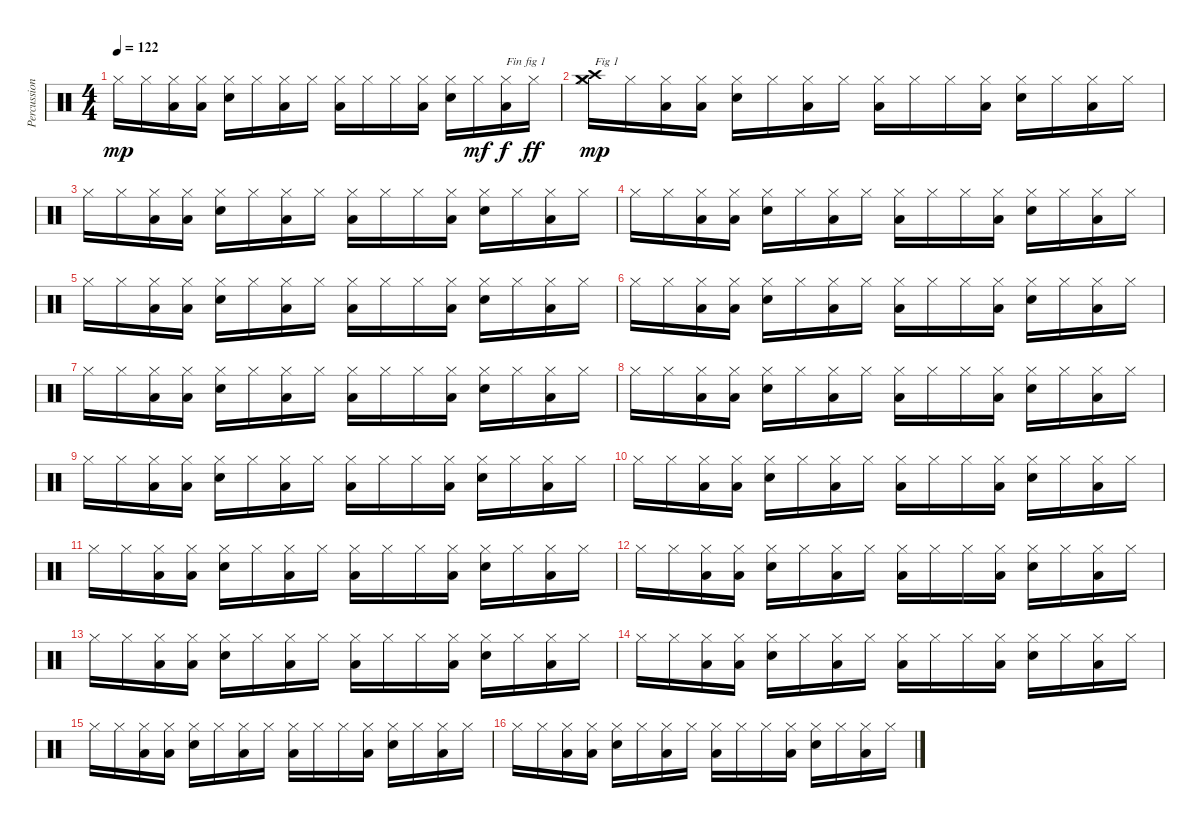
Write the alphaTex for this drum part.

\track ("Percussions" "Percussion") {instrument percussion}
\staff {score}
\articulation defaults
\ts (4 4)
\tempo 122
\clef neutral
\ks c "Hi-Hat (closed)".16{dy mp} "Hi-Hat (closed)".16
("Low Floor Tom (hit)" "Hi-Hat (closed)").16 ("Low Floor Tom (hit)" "Hi-Hat (closed)").16 ("Snare (hit) 2" "Hi-Hat (closed)").16 "Hi-Hat (closed)".16 ("Low Floor Tom (hit)" "Hi-Hat (closed)").16 "Hi-Hat (closed)".16 ("Low Floor Tom (hit)" "Hi-Hat (closed)").16 "Hi-Hat (closed)".16 "Hi-Hat (closed)".16 ("Low Floor Tom (hit)" "Hi-Hat (closed)").16 ("Snare (hit) 2" "Hi-Hat (closed)").16 "Hi-Hat (closed)".16{dy mf} ("Low Floor Tom (hit)" "Hi-Hat (closed)").16{txt "Fin fig 1" dy f} "Hi-Hat (closed)".16{dy ff} |
("Crash high (hit)" "Crash medium (hit)" "Hi-Hat (closed)").16{txt "Fig 1" dy mp} "Hi-Hat (closed)".16 ("Low Floor Tom (hit)" "Hi-Hat (closed)").16 ("Low Floor Tom (hit)" "Hi-Hat (closed)").16 ("Snare (hit) 2" "Hi-Hat (closed)").16 "Hi-Hat (closed)".16 ("Low Floor Tom (hit)" "Hi-Hat (closed)").16 "Hi-Hat (closed)".16 ("Low Floor Tom (hit)" "Hi-Hat (closed)").16 "Hi-Hat (closed)".16 "Hi-Hat (closed)".16 ("Low Floor Tom (hit)" "Hi-Hat (closed)").16 ("Snare (hit) 2" "Hi-Hat (closed)").16 "Hi-Hat (closed)".16 ("Low Floor Tom (hit)" "Hi-Hat (closed)").16 "Hi-Hat (closed)".16 |
"Hi-Hat (closed)".16 "Hi-Hat (closed)".16 ("Low Floor Tom (hit)" "Hi-Hat (closed)").16 ("Low Floor Tom (hit)" "Hi-Hat (closed)").16 ("Snare (hit) 2" "Hi-Hat (closed)").16 "Hi-Hat (closed)".16 ("Low Floor Tom (hit)" "Hi-Hat (closed)").16 "Hi-Hat (closed)".16 ("Low Floor Tom (hit)" "Hi-Hat (closed)").16 "Hi-Hat (closed)".16 "Hi-Hat (closed)".16 ("Low Floor Tom (hit)" "Hi-Hat (closed)").16 ("Snare (hit) 2" "Hi-Hat (closed)").16 "Hi-Hat (closed)".16 ("Low Floor Tom (hit)" "Hi-Hat (closed)").16 "Hi-Hat (closed)".16 |
"Hi-Hat (closed)".16 "Hi-Hat (closed)".16 ("Low Floor Tom (hit)" "Hi-Hat (closed)").16 ("Low Floor Tom (hit)" "Hi-Hat (closed)").16 ("Snare (hit) 2" "Hi-Hat (closed)").16 "Hi-Hat (closed)".16 ("Low Floor Tom (hit)" "Hi-Hat (closed)").16 "Hi-Hat (closed)".16 ("Low Floor Tom (hit)" "Hi-Hat (closed)").16 "Hi-Hat (closed)".16 "Hi-Hat (closed)".16 ("Low Floor Tom (hit)" "Hi-Hat (closed)").16 ("Snare (hit) 2" "Hi-Hat (closed)").16 "Hi-Hat (closed)".16 ("Low Floor Tom (hit)" "Hi-Hat (closed)").16 "Hi-Hat (closed)".16 |
"Hi-Hat (closed)".16 "Hi-Hat (closed)".16 ("Low Floor Tom (hit)" "Hi-Hat (closed)").16 ("Low Floor Tom (hit)" "Hi-Hat (closed)").16 ("Snare (hit) 2" "Hi-Hat (closed)").16 "Hi-Hat (closed)".16 ("Low Floor Tom (hit)" "Hi-Hat (closed)").16 "Hi-Hat (closed)".16 ("Low Floor Tom (hit)" "Hi-Hat (closed)").16 "Hi-Hat (closed)".16 "Hi-Hat (closed)".16 ("Low Floor Tom (hit)" "Hi-Hat (closed)").16 ("Snare (hit) 2" "Hi-Hat (closed)").16 "Hi-Hat (closed)".16 ("Low Floor Tom (hit)" "Hi-Hat (closed)").16 "Hi-Hat (closed)".16 |
"Hi-Hat (closed)".16 "Hi-Hat (closed)".16 ("Low Floor Tom (hit)" "Hi-Hat (closed)").16 ("Low Floor Tom (hit)" "Hi-Hat (closed)").16 ("Snare (hit) 2" "Hi-Hat (closed)").16 "Hi-Hat (closed)".16 ("Low Floor Tom (hit)" "Hi-Hat (closed)").16 "Hi-Hat (closed)".16 ("Low Floor Tom (hit)" "Hi-Hat (closed)").16 "Hi-Hat (closed)".16 "Hi-Hat (closed)".16 ("Low Floor Tom (hit)" "Hi-Hat (closed)").16 ("Snare (hit) 2" "Hi-Hat (closed)").16 "Hi-Hat (closed)".16 ("Low Floor Tom (hit)" "Hi-Hat (closed)").16 "Hi-Hat (closed)".16 |
"Hi-Hat (closed)".16 "Hi-Hat (closed)".16 ("Low Floor Tom (hit)" "Hi-Hat (closed)").16 ("Low Floor Tom (hit)" "Hi-Hat (closed)").16 ("Snare (hit) 2" "Hi-Hat (closed)").16 "Hi-Hat (closed)".16 ("Low Floor Tom (hit)" "Hi-Hat (closed)").16 "Hi-Hat (closed)".16 ("Low Floor Tom (hit)" "Hi-Hat (closed)").16 "Hi-Hat (closed)".16 "Hi-Hat (closed)".16 ("Low Floor Tom (hit)" "Hi-Hat (closed)").16 ("Snare (hit) 2" "Hi-Hat (closed)").16 "Hi-Hat (closed)".16 ("Low Floor Tom (hit)" "Hi-Hat (closed)").16 "Hi-Hat (closed)".16 |
"Hi-Hat (closed)".16 "Hi-Hat (closed)".16 ("Low Floor Tom (hit)" "Hi-Hat (closed)").16 ("Low Floor Tom (hit)" "Hi-Hat (closed)").16 ("Snare (hit) 2" "Hi-Hat (closed)").16 "Hi-Hat (closed)".16 ("Low Floor Tom (hit)" "Hi-Hat (closed)").16 "Hi-Hat (closed)".16 ("Low Floor Tom (hit)" "Hi-Hat (closed)").16 "Hi-Hat (closed)".16 "Hi-Hat (closed)".16 ("Low Floor Tom (hit)" "Hi-Hat (closed)").16 ("Snare (hit) 2" "Hi-Hat (closed)").16 "Hi-Hat (closed)".16 ("Low Floor Tom (hit)" "Hi-Hat (closed)").16 "Hi-Hat (closed)".16 |
"Hi-Hat (closed)".16 "Hi-Hat (closed)".16 ("Low Floor Tom (hit)" "Hi-Hat (closed)").16 ("Low Floor Tom (hit)" "Hi-Hat (closed)").16 ("Snare (hit) 2" "Hi-Hat (closed)").16 "Hi-Hat (closed)".16 ("Low Floor Tom (hit)" "Hi-Hat (closed)").16 "Hi-Hat (closed)".16 ("Low Floor Tom (hit)" "Hi-Hat (closed)").16 "Hi-Hat (closed)".16 "Hi-Hat (closed)".16 ("Low Floor Tom (hit)" "Hi-Hat (closed)").16 ("Snare (hit) 2" "Hi-Hat (closed)").16 "Hi-Hat (closed)".16 ("Low Floor Tom (hit)" "Hi-Hat (closed)").16 "Hi-Hat (closed)".16 |
"Hi-Hat (closed)".16 "Hi-Hat (closed)".16 ("Low Floor Tom (hit)" "Hi-Hat (closed)").16 ("Low Floor Tom (hit)" "Hi-Hat (closed)").16 ("Snare (hit) 2" "Hi-Hat (closed)").16 "Hi-Hat (closed)".16 ("Low Floor Tom (hit)" "Hi-Hat (closed)").16 "Hi-Hat (closed)".16 ("Low Floor Tom (hit)" "Hi-Hat (closed)").16 "Hi-Hat (closed)".16 "Hi-Hat (closed)".16 ("Low Floor Tom (hit)" "Hi-Hat (closed)").16 ("Snare (hit) 2" "Hi-Hat (closed)").16 "Hi-Hat (closed)".16 ("Low Floor Tom (hit)" "Hi-Hat (closed)").16 "Hi-Hat (closed)".16 |
"Hi-Hat (closed)".16 "Hi-Hat (closed)".16 ("Low Floor Tom (hit)" "Hi-Hat (closed)").16 ("Low Floor Tom (hit)" "Hi-Hat (closed)").16 ("Snare (hit) 2" "Hi-Hat (closed)").16 "Hi-Hat (closed)".16 ("Low Floor Tom (hit)" "Hi-Hat (closed)").16 "Hi-Hat (closed)".16 ("Low Floor Tom (hit)" "Hi-Hat (closed)").16 "Hi-Hat (closed)".16 "Hi-Hat (closed)".16 ("Low Floor Tom (hit)" "Hi-Hat (closed)").16 ("Snare (hit) 2" "Hi-Hat (closed)").16 "Hi-Hat (closed)".16 ("Low Floor Tom (hit)" "Hi-Hat (closed)").16 "Hi-Hat (closed)".16 |
"Hi-Hat (closed)".16 "Hi-Hat (closed)".16 ("Low Floor Tom (hit)" "Hi-Hat (closed)").16 ("Low Floor Tom (hit)" "Hi-Hat (closed)").16 ("Snare (hit) 2" "Hi-Hat (closed)").16 "Hi-Hat (closed)".16 ("Low Floor Tom (hit)" "Hi-Hat (closed)").16 "Hi-Hat (closed)".16 ("Low Floor Tom (hit)" "Hi-Hat (closed)").16 "Hi-Hat (closed)".16 "Hi-Hat (closed)".16 ("Low Floor Tom (hit)" "Hi-Hat (closed)").16 ("Snare (hit) 2" "Hi-Hat (closed)").16 "Hi-Hat (closed)".16 ("Low Floor Tom (hit)" "Hi-Hat (closed)").16 "Hi-Hat (closed)".16 |
"Hi-Hat (closed)".16 "Hi-Hat (closed)".16 ("Low Floor Tom (hit)" "Hi-Hat (closed)").16 ("Low Floor Tom (hit)" "Hi-Hat (closed)").16 ("Snare (hit) 2" "Hi-Hat (closed)").16 "Hi-Hat (closed)".16 ("Low Floor Tom (hit)" "Hi-Hat (closed)").16 "Hi-Hat (closed)".16 ("Low Floor Tom (hit)" "Hi-Hat (closed)").16 "Hi-Hat (closed)".16 "Hi-Hat (closed)".16 ("Low Floor Tom (hit)" "Hi-Hat (closed)").16 ("Snare (hit) 2" "Hi-Hat (closed)").16 "Hi-Hat (closed)".16 ("Low Floor Tom (hit)" "Hi-Hat (closed)").16 "Hi-Hat (closed)".16 |
"Hi-Hat (closed)".16 "Hi-Hat (closed)".16 ("Low Floor Tom (hit)" "Hi-Hat (closed)").16 ("Low Floor Tom (hit)" "Hi-Hat (closed)").16 ("Snare (hit) 2" "Hi-Hat (closed)").16 "Hi-Hat (closed)".16 ("Low Floor Tom (hit)" "Hi-Hat (closed)").16 "Hi-Hat (closed)".16 ("Low Floor Tom (hit)" "Hi-Hat (closed)").16 "Hi-Hat (closed)".16 "Hi-Hat (closed)".16 ("Low Floor Tom (hit)" "Hi-Hat (closed)").16 ("Snare (hit) 2" "Hi-Hat (closed)").16 "Hi-Hat (closed)".16 ("Low Floor Tom (hit)" "Hi-Hat (closed)").16 "Hi-Hat (closed)".16 |
"Hi-Hat (closed)".16 "Hi-Hat (closed)".16 ("Low Floor Tom (hit)" "Hi-Hat (closed)").16 ("Low Floor Tom (hit)" "Hi-Hat (closed)").16 ("Snare (hit) 2" "Hi-Hat (closed)").16 "Hi-Hat (closed)".16 ("Low Floor Tom (hit)" "Hi-Hat (closed)").16 "Hi-Hat (closed)".16 ("Low Floor Tom (hit)" "Hi-Hat (closed)").16 "Hi-Hat (closed)".16 "Hi-Hat (closed)".16 ("Low Floor Tom (hit)" "Hi-Hat (closed)").16 ("Snare (hit) 2" "Hi-Hat (closed)").16 "Hi-Hat (closed)".16 ("Low Floor Tom (hit)" "Hi-Hat (closed)").16 "Hi-Hat (closed)".16 |
"Hi-Hat (closed)".16 "Hi-Hat (closed)".16 ("Low Floor Tom (hit)" "Hi-Hat (closed)").16 ("Low Floor Tom (hit)" "Hi-Hat (closed)").16 ("Snare (hit) 2" "Hi-Hat (closed)").16 "Hi-Hat (closed)".16 ("Low Floor Tom (hit)" "Hi-Hat (closed)").16 "Hi-Hat (closed)".16 ("Low Floor Tom (hit)" "Hi-Hat (closed)").16 "Hi-Hat (closed)".16 "Hi-Hat (closed)".16 ("Low Floor Tom (hit)" "Hi-Hat (closed)").16 ("Snare (hit) 2" "Hi-Hat (closed)").16 "Hi-Hat (closed)".16 ("Low Floor Tom (hit)" "Hi-Hat (closed)").16 "Hi-Hat (closed)".16
